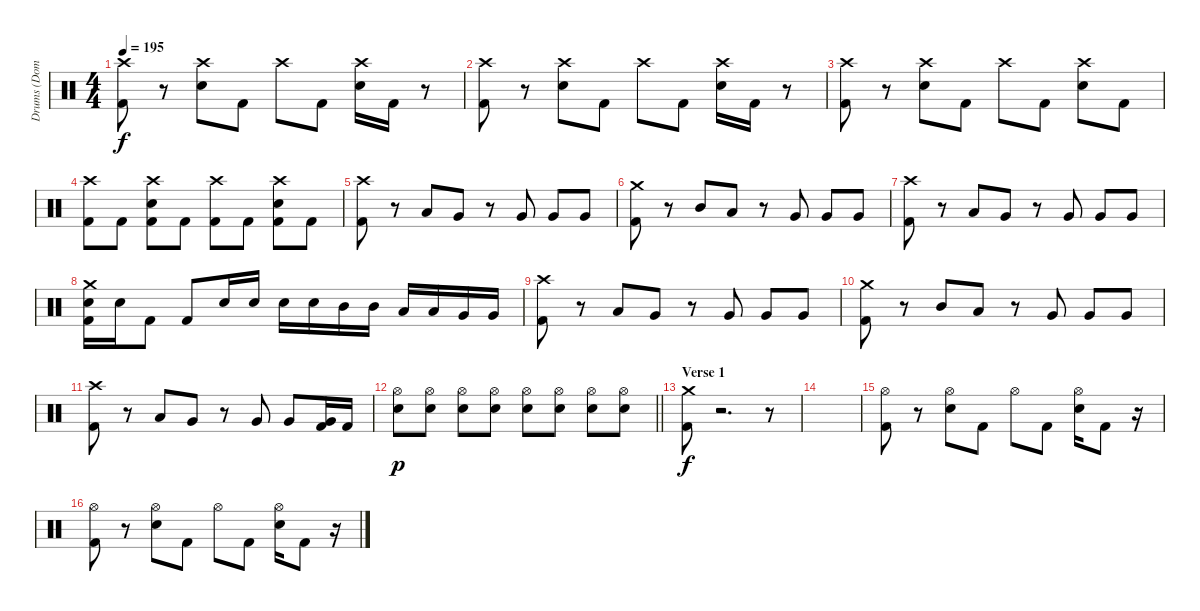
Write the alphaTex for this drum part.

\track ("Drums (Dominik)" "Drums (Dom") {instrument percussion}
\staff {score}
\articulation defaults
\ts (4 4)
\tempo 195
\clef neutral
\ks c
("Crash high (hit)" "Kick (hit) 2").8{dy f} r.8 ("Crash high (hit)" "Electric Snare (hit)").8 "Kick (hit) 2".8 "Crash high (hit)".8 "Kick (hit) 2".8 ("Crash high (hit)" "Electric Snare (hit)").16 "Kick (hit) 2".16 r.8 |
("Crash high (hit)" "Kick (hit) 2").8 r.8 ("Crash high (hit)" "Electric Snare (hit)").8 "Kick (hit) 2".8 "Crash high (hit)".8 "Kick (hit) 2".8 ("Crash high (hit)" "Electric Snare (hit)").16 "Kick (hit) 2".16 r.8 |
("Crash high (hit)" "Kick (hit) 2").8 r.8 ("Crash high (hit)" "Electric Snare (hit)").8 "Kick (hit) 2".8 "Crash high (hit)".8 "Kick (hit) 2".8 ("Crash high (hit)" "Electric Snare (hit)").8 "Kick (hit) 2".8 |
("Crash high (hit)" "Kick (hit) 2").8 "Kick (hit) 2".8 ("Crash high (hit)" "Electric Snare (hit)" "Kick (hit) 2").8 "Kick (hit) 2".8 ("Crash high (hit)" "Kick (hit) 2").8 "Kick (hit) 2".8 ("Crash high (hit)" "Electric Snare (hit)" "Kick (hit) 2").8 "Kick (hit) 2".8 |
("Crash high (hit)" "Kick (hit) 2").8 r.8 "Low Tom (hit)".8 "Very Low Tom (hit)".8 r.8 "Very Low Tom (hit)".8 "Very Low Tom (hit)".8 "Very Low Tom (hit)".8 |
("Crash medium (hit)" "Kick (hit) 2").8 r.8 "Mid Tom (hit)".8 "Low Tom (hit)".8 r.8 "Very Low Tom (hit)".8 "Very Low Tom (hit)".8 "Very Low Tom (hit)".8 |
("Crash high (hit)" "Kick (hit) 2").8 r.8 "Low Tom (hit)".8 "Very Low Tom (hit)".8 r.8 "Very Low Tom (hit)".8 "Very Low Tom (hit)".8 "Very Low Tom (hit)".8 |
("Crash medium (hit)" "Electric Snare (hit)" "Kick (hit) 2").16 "Electric Snare (hit)".16 "Kick (hit) 2".8 "Kick (hit) 2".8 "Electric Snare (hit)".16 "Electric Snare (hit)".16 "Electric Snare (hit)".16 "Electric Snare (hit)".16 "Mid Tom (hit)".16 "Mid Tom (hit)".16 "Low Tom (hit)".16 "Low Tom (hit)".16 "Very Low Tom (hit)".16 "Very Low Tom (hit)".16 |
("Crash high (hit)" "Kick (hit) 2").8 r.8 "Low Tom (hit)".8 "Very Low Tom (hit)".8 r.8 "Very Low Tom (hit)".8 "Very Low Tom (hit)".8 "Very Low Tom (hit)".8 |
("Crash medium (hit)" "Kick (hit) 2").8 r.8 "Mid Tom (hit)".8 "Low Tom (hit)".8 r.8 "Very Low Tom (hit)".8 "Very Low Tom (hit)".8 "Very Low Tom (hit)".8 |
("Crash high (hit)" "Kick (hit) 2").8 r.8 "Low Tom (hit)".8 "Very Low Tom (hit)".8 r.8 "Very Low Tom (hit)".8 "Very Low Tom (hit)".8 ("Very Low Tom (hit)" "Kick (hit) 2").16 "Kick (hit) 2".16 |
\barLineRight lightlight
("Hi-Hat (open)" "Electric Snare (hit)").8{dy p} ("Hi-Hat (open)" "Electric Snare (hit)").8 ("Hi-Hat (open)" "Electric Snare (hit)").8 ("Hi-Hat (open)" "Electric Snare (hit)").8 ("Hi-Hat (open)" "Electric Snare (hit)").8 ("Hi-Hat (open)" "Electric Snare (hit)").8 ("Hi-Hat (open)" "Electric Snare (hit)").8 ("Hi-Hat (open)" "Electric Snare (hit)").8 |
\section ("" "Verse 1")
("Crash medium (hit)" "Kick (hit) 2").8{dy f} r.2{d volume 0} r.8 |
|
("Hi-Hat (open)" "Kick (hit) 2").8{volume 13} r.8 ("Hi-Hat (open)" "Electric Snare (hit)").8 "Kick (hit) 2".8 "Hi-Hat (open)".8 "Kick (hit) 2".8 ("Hi-Hat (open)" "Electric Snare (hit)").16 "Kick (hit) 2".8 r.16 |
("Hi-Hat (open)" "Kick (hit) 2").8 r.8 ("Hi-Hat (open)" "Electric Snare (hit)").8 "Kick (hit) 2".8 "Hi-Hat (open)".8 "Kick (hit) 2".8 ("Hi-Hat (open)" "Electric Snare (hit)").16 "Kick (hit) 2".8 r.16
